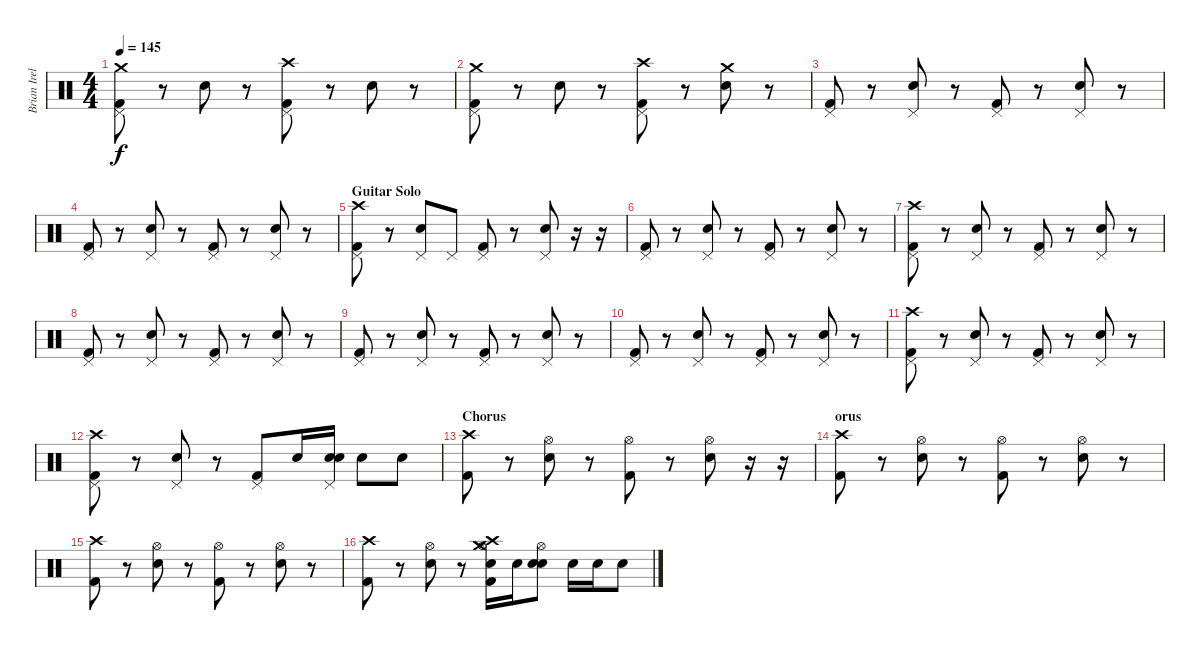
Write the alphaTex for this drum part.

\track ("Brian Ireland" "Brian Irel") {instrument percussion}
\staff {score}
\articulation defaults
\ts (4 4)
\tempo 145
\clef neutral
\ks c
("Crash medium (hit)" "Pedal Hi-Hat (hit)" "Kick (hit) 2").8{dy f} r.8 "Electric Snare (hit)".8 r.8 ("Crash high (hit)" "Pedal Hi-Hat (hit)" "Kick (hit) 2").8 r.8 "Electric Snare (hit)".8 r.8 |
("Crash medium (hit)" "Pedal Hi-Hat (hit)" "Kick (hit) 2").8 r.8 "Electric Snare (hit)".8 r.8 ("Crash high (hit)" "Pedal Hi-Hat (hit)" "Kick (hit) 2").8 r.8 ("Crash medium (hit)" "Electric Snare (hit)").8 r.8 |
("Pedal Hi-Hat (hit)" "Kick (hit) 2").8 r.8 ("Pedal Hi-Hat (hit)" "Electric Snare (hit)").8 r.8 ("Pedal Hi-Hat (hit)" "Kick (hit) 2").8 r.8 ("Pedal Hi-Hat (hit)" "Electric Snare (hit)").8 r.8 |
("Pedal Hi-Hat (hit)" "Kick (hit) 2").8 r.8 ("Pedal Hi-Hat (hit)" "Electric Snare (hit)").8 r.8 ("Pedal Hi-Hat (hit)" "Kick (hit) 2").8 r.8 ("Pedal Hi-Hat (hit)" "Electric Snare (hit)").8 r.8 |
\section ("" "Guitar Solo")
("Crash high (hit)" "Pedal Hi-Hat (hit)" "Kick (hit) 2").8 r.8 ("Pedal Hi-Hat (hit)" "Electric Snare (hit)").8 "Pedal Hi-Hat (hit)".8 ("Pedal Hi-Hat (hit)" "Kick (hit) 2").8 r.8 ("Pedal Hi-Hat (hit)" "Electric Snare (hit)").8 r.16 r.16 |
("Pedal Hi-Hat (hit)" "Kick (hit) 2").8 r.8 ("Pedal Hi-Hat (hit)" "Electric Snare (hit)").8 r.8 ("Pedal Hi-Hat (hit)" "Kick (hit) 2").8 r.8 ("Pedal Hi-Hat (hit)" "Electric Snare (hit)").8 r.8 |
("Crash high (hit)" "Pedal Hi-Hat (hit)" "Kick (hit) 2").8 r.8 ("Pedal Hi-Hat (hit)" "Electric Snare (hit)").8 r.8 ("Pedal Hi-Hat (hit)" "Kick (hit) 2").8 r.8 ("Pedal Hi-Hat (hit)" "Electric Snare (hit)").8 r.8 |
("Pedal Hi-Hat (hit)" "Kick (hit) 2").8 r.8 ("Pedal Hi-Hat (hit)" "Electric Snare (hit)").8 r.8 ("Pedal Hi-Hat (hit)" "Kick (hit) 2").8 r.8 ("Pedal Hi-Hat (hit)" "Electric Snare (hit)").8 r.8 |
("Pedal Hi-Hat (hit)" "Kick (hit) 2").8 r.8 ("Pedal Hi-Hat (hit)" "Electric Snare (hit)").8 r.8 ("Pedal Hi-Hat (hit)" "Kick (hit) 2").8 r.8 ("Pedal Hi-Hat (hit)" "Electric Snare (hit)").8 r.8 |
("Pedal Hi-Hat (hit)" "Kick (hit) 2").8 r.8 ("Pedal Hi-Hat (hit)" "Electric Snare (hit)").8 r.8 ("Pedal Hi-Hat (hit)" "Kick (hit) 2").8 r.8 ("Pedal Hi-Hat (hit)" "Electric Snare (hit)").8 r.8 |
("Crash high (hit)" "Pedal Hi-Hat (hit)" "Kick (hit) 2").8 r.8 ("Pedal Hi-Hat (hit)" "Electric Snare (hit)").8 r.8 ("Pedal Hi-Hat (hit)" "Kick (hit) 2").8 r.8 ("Pedal Hi-Hat (hit)" "Electric Snare (hit)").8 r.8 |
("Crash high (hit)" "Pedal Hi-Hat (hit)" "Kick (hit) 2").8 r.8 ("Pedal Hi-Hat (hit)" "Electric Snare (hit)").8 r.8 ("Pedal Hi-Hat (hit)" "Kick (hit) 2").8 "Electric Snare (hit)".16 ("Electric Snare (hit)" "Pedal Hi-Hat (hit)" "Electric Snare (hit)").16 "Electric Snare (hit)".8 "Electric Snare (hit)".8 |
\section ("" "Chorus")
("Crash high (hit)" "Kick (hit) 2").8 r.8 ("Hi-Hat (open)" "Electric Snare (hit)").8 r.8 ("Hi-Hat (open)" "Kick (hit) 2").8 r.8 ("Hi-Hat (open)" "Electric Snare (hit)").8 r.16 r.16 |
\section ("" "orus")
("Crash high (hit)" "Kick (hit) 2").8 r.8 ("Hi-Hat (open)" "Electric Snare (hit)").8 r.8 ("Hi-Hat (open)" "Kick (hit) 2").8 r.8 ("Hi-Hat (open)" "Electric Snare (hit)").8 r.8 |
("Crash high (hit)" "Kick (hit) 2").8 r.8 ("Hi-Hat (open)" "Electric Snare (hit)").8 r.8 ("Hi-Hat (open)" "Kick (hit) 2").8 r.8 ("Hi-Hat (open)" "Electric Snare (hit)").8 r.8 |
("Crash high (hit)" "Kick (hit) 2").8 r.8 ("Hi-Hat (open)" "Electric Snare (hit)").8 r.8 ("Crash medium (hit)" "Crash high (hit)" "Electric Snare (hit)" "Hi-Hat (open)" "Kick (hit) 2").16 "Electric Snare (hit)".16 ("Electric Snare (hit)" "Hi-Hat (open)" "Electric Snare (hit)").8 "Electric Snare (hit)".16 "Electric Snare (hit)".16 "Electric Snare (hit)".8
